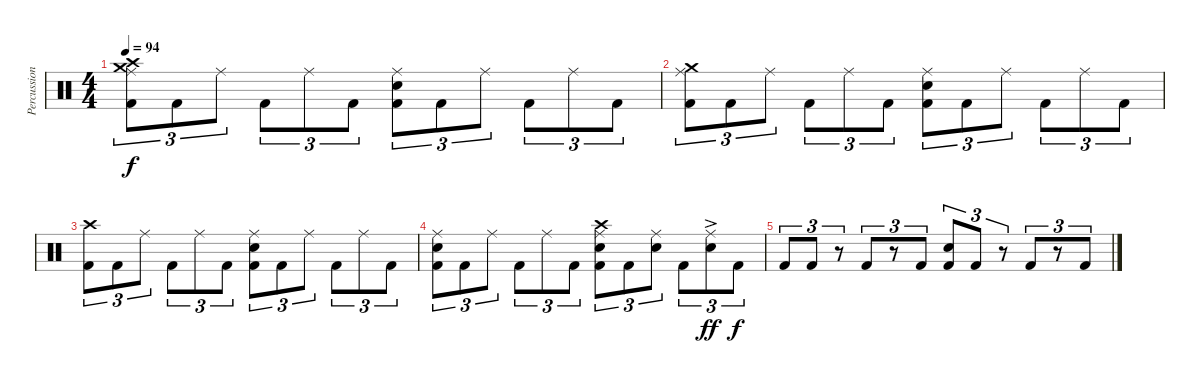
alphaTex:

\track ("Percussion" "Percussion") {mute instrument percussion}
\staff {score}
\articulation defaults
\ts (4 4)
\tempo 94
\clef neutral
\ks c
("Crash medium (hit)" "Crash high (hit)" "Ride (middle)" "Kick (hit) 2").8{tu (3 2) dy f} "Kick (hit) 2".8{tu (3 2)} "Ride (middle)".8{tu (3 2)} "Kick (hit) 2".8{tu (3 2)} "Ride (middle)".8{tu (3 2)} "Kick (hit) 2".8{tu (3 2)} ("Ride (middle)" "Electric Snare (hit)" "Kick (hit) 2").8{tu (3 2)} "Kick (hit) 2".8{tu (3 2)} "Ride (middle)".8{tu (3 2)} "Kick (hit) 2".8{tu (3 2)} "Ride (middle)".8{tu (3 2)} "Kick (hit) 2".8{tu (3 2)} |
("Crash medium (hit)" "Ride (middle)" "Kick (hit) 2").8{tu (3 2)} "Kick (hit) 2".8{tu (3 2)} "Ride (middle)".8{tu (3 2)} "Kick (hit) 2".8{tu (3 2)} "Ride (middle)".8{tu (3 2)} "Kick (hit) 2".8{tu (3 2)} ("Ride (middle)" "Electric Snare (hit)" "Kick (hit) 2").8{tu (3 2)} "Kick (hit) 2".8{tu (3 2)} "Ride (middle)".8{tu (3 2)} "Kick (hit) 2".8{tu (3 2)} "Ride (middle)".8{tu (3 2)} "Kick (hit) 2".8{tu (3 2)} |
("Crash high (hit)" "Kick (hit) 2").8{tu (3 2)} "Kick (hit) 2".8{tu (3 2)} "Ride (middle)".8{tu (3 2)} "Kick (hit) 2".8{tu (3 2)} "Ride (middle)".8{tu (3 2)} "Kick (hit) 2".8{tu (3 2)} ("Ride (middle)" "Electric Snare (hit)" "Kick (hit) 2").8{tu (3 2)} "Kick (hit) 2".8{tu (3 2)} "Ride (middle)".8{tu (3 2)} "Kick (hit) 2".8{tu (3 2)} "Ride (middle)".8{tu (3 2)} "Kick (hit) 2".8{tu (3 2)} |
("Ride (middle)" "Electric Snare (hit)" "Kick (hit) 2").8{tu (3 2)} "Kick (hit) 2".8{tu (3 2)} "Ride (middle)".8{tu (3 2)} "Kick (hit) 2".8{tu (3 2)} "Ride (middle)".8{tu (3 2)} "Kick (hit) 2".8{tu (3 2)} ("Crash high (hit)" "Ride (middle)" "Electric Snare (hit)" "Kick (hit) 2").8{tu (3 2)} "Kick (hit) 2".8{tu (3 2)} ("Ride (middle)" "Electric Snare (hit)").8{tu (3 2)} "Kick (hit) 2".8{tu (3 2)} ("Ride (middle)" "Electric Snare (hit)"{ac}).8{tu (3 2) dy ff} "Kick (hit) 2".8{tu (3 2) dy f} |
"Kick (hit) 2".8{tu (3 2)} "Kick (hit) 2".8{tu (3 2)} r.8{tu (3 2)} "Kick (hit) 2".8{tu (3 2)} r.8{tu (3 2)} "Kick (hit) 2".8{tu (3 2)} ("Electric Snare (hit)" "Kick (hit) 2").8{tu (3 2)} "Kick (hit) 2".8{tu (3 2)} r.8{tu (3 2)} "Kick (hit) 2".8{tu (3 2)} r.8{tu (3 2)} "Kick (hit) 2".8{tu (3 2)}
